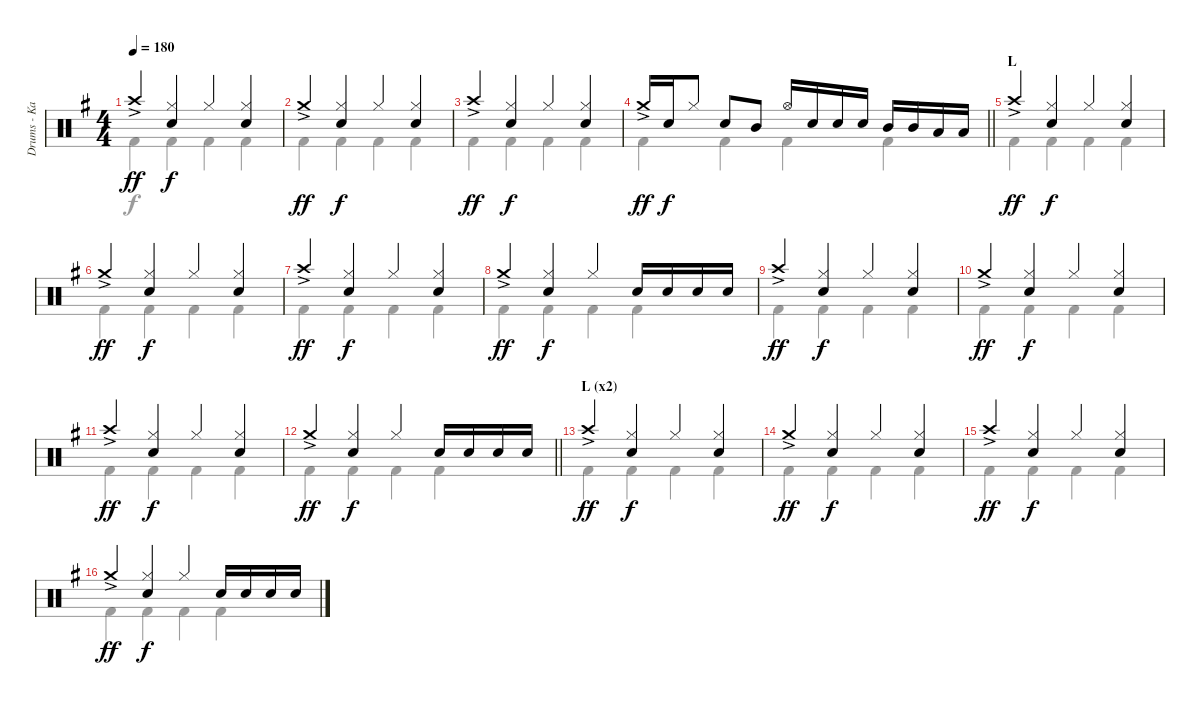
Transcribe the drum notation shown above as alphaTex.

\track ("Drums - Kai" "Drums - Ka") {instrument percussion}
\staff {score}
\articulation defaults
\voice
\ts (4 4)
\tempo 180
\clef neutral
\ks g "Crash high (hit)"{ac}.4{dy ff}
("Hi-Hat (closed)" "Snare (hit) 2").4{dy f} "Hi-Hat (closed)".4 ("Hi-Hat (closed)" "Snare (hit) 2").4 |
"Crash medium (hit)"{ac}.4{dy ff} ("Hi-Hat (closed)" "Snare (hit) 2").4{dy f} "Hi-Hat (closed)".4 ("Hi-Hat (closed)" "Snare (hit) 2").4 |
"Crash high (hit)"{ac}.4{dy ff} ("Hi-Hat (closed)" "Snare (hit) 2").4{dy f} "Hi-Hat (closed)".4 ("Hi-Hat (closed)" "Snare (hit) 2").4 |
\barLineRight lightlight "Crash medium (hit)"{ac}.16{dy ff} "Snare (hit) 2".16{dy f} "Hi-Hat (closed)".8 "Snare (hit) 2".8 "Mid Tom (hit)".8 "Hi-Hat (open)".16 "Snare (hit) 2".16 "Snare (hit) 2".16 "Snare (hit) 2".16 "Mid Tom (hit)".16 "Mid Tom (hit)".16 "Low Tom (hit)".16 "Low Tom (hit)".16
|
\section ("" "L")
"Crash high (hit)"{ac}.4{dy ff} ("Hi-Hat (closed)" "Snare (hit) 2").4{dy f} "Hi-Hat (closed)".4 ("Hi-Hat (closed)" "Snare (hit) 2").4 |
"Crash medium (hit)"{ac}.4{dy ff} ("Hi-Hat (closed)" "Snare (hit) 2").4{dy f} "Hi-Hat (closed)".4 ("Hi-Hat (closed)" "Snare (hit) 2").4 |
"Crash high (hit)"{ac}.4{dy ff} ("Hi-Hat (closed)" "Snare (hit) 2").4{dy f} "Hi-Hat (closed)".4 ("Hi-Hat (closed)" "Snare (hit) 2").4 |
"Crash medium (hit)"{ac}.4{dy ff} ("Hi-Hat (closed)" "Snare (hit) 2").4{dy f} "Hi-Hat (closed)".4 "Snare (hit) 2".16 "Snare (hit) 2".16 "Snare (hit) 2".16 "Snare (hit) 2".16 |
"Crash high (hit)"{ac}.4{dy ff} ("Hi-Hat (closed)" "Snare (hit) 2").4{dy f} "Hi-Hat (closed)".4 ("Hi-Hat (closed)" "Snare (hit) 2").4 |
"Crash medium (hit)"{ac}.4{dy ff} ("Hi-Hat (closed)" "Snare (hit) 2").4{dy f} "Hi-Hat (closed)".4 ("Hi-Hat (closed)" "Snare (hit) 2").4 |
"Crash high (hit)"{ac}.4{dy ff} ("Hi-Hat (closed)" "Snare (hit) 2").4{dy f} "Hi-Hat (closed)".4 ("Hi-Hat (closed)" "Snare (hit) 2").4 |
\barLineRight lightlight "Crash medium (hit)"{ac}.4{dy ff}
("Hi-Hat (closed)" "Snare (hit) 2").4{dy f} "Hi-Hat (closed)".4 "Snare (hit) 2".16 "Snare (hit) 2".16 "Snare (hit) 2".16 "Snare (hit) 2".16 |
\section ("" "L (x2)")
"Crash high (hit)"{ac}.4{dy ff} ("Hi-Hat (closed)" "Snare (hit) 2").4{dy f} "Hi-Hat (closed)".4 ("Hi-Hat (closed)" "Snare (hit) 2").4 |
"Crash medium (hit)"{ac}.4{dy ff} ("Hi-Hat (closed)" "Snare (hit) 2").4{dy f} "Hi-Hat (closed)".4 ("Hi-Hat (closed)" "Snare (hit) 2").4 |
"Crash high (hit)"{ac}.4{dy ff} ("Hi-Hat (closed)" "Snare (hit) 2").4{dy f} "Hi-Hat (closed)".4 ("Hi-Hat (closed)" "Snare (hit) 2").4 |
"Crash medium (hit)"{ac}.4{dy ff} ("Hi-Hat (closed)" "Snare (hit) 2").4{dy f} "Hi-Hat (closed)".4 "Snare (hit) 2".16 "Snare (hit) 2".16 "Snare (hit) 2".16 "Snare (hit) 2".16
\voice
\clef neutral
\ottava regular
\simile none
\ks g "Kick (hit) 2".4{dy f} "Kick (hit) 2".4 "Kick (hit) 2".4 "Kick (hit) 2".4
|
"Kick (hit) 2".4 "Kick (hit) 2".4 "Kick (hit) 2".4 "Kick (hit) 2".4 |
"Kick (hit) 2".4 "Kick (hit) 2".4 "Kick (hit) 2".4 "Kick (hit) 2".4 |
\barLineRight lightlight "Kick (hit) 2".4 "Kick (hit) 2".4 "Kick (hit) 2".4 "Kick (hit) 2".4
|
"Kick (hit) 2".4 "Kick (hit) 2".4 "Kick (hit) 2".4 "Kick (hit) 2".4 |
"Kick (hit) 2".4 "Kick (hit) 2".4 "Kick (hit) 2".4 "Kick (hit) 2".4 |
"Kick (hit) 2".4 "Kick (hit) 2".4 "Kick (hit) 2".4 "Kick (hit) 2".4 |
"Kick (hit) 2".4 "Kick (hit) 2".4 "Kick (hit) 2".4 "Kick (hit) 2".4 |
"Kick (hit) 2".4 "Kick (hit) 2".4 "Kick (hit) 2".4 "Kick (hit) 2".4 |
"Kick (hit) 2".4 "Kick (hit) 2".4 "Kick (hit) 2".4 "Kick (hit) 2".4 |
"Kick (hit) 2".4 "Kick (hit) 2".4 "Kick (hit) 2".4 "Kick (hit) 2".4 |
\barLineRight lightlight "Kick (hit) 2".4 "Kick (hit) 2".4 "Kick (hit) 2".4 "Kick (hit) 2".4
|
"Kick (hit) 2".4 "Kick (hit) 2".4 "Kick (hit) 2".4 "Kick (hit) 2".4 |
"Kick (hit) 2".4 "Kick (hit) 2".4 "Kick (hit) 2".4 "Kick (hit) 2".4 |
"Kick (hit) 2".4 "Kick (hit) 2".4 "Kick (hit) 2".4 "Kick (hit) 2".4 |
"Kick (hit) 2".4 "Kick (hit) 2".4 "Kick (hit) 2".4 "Kick (hit) 2".4
